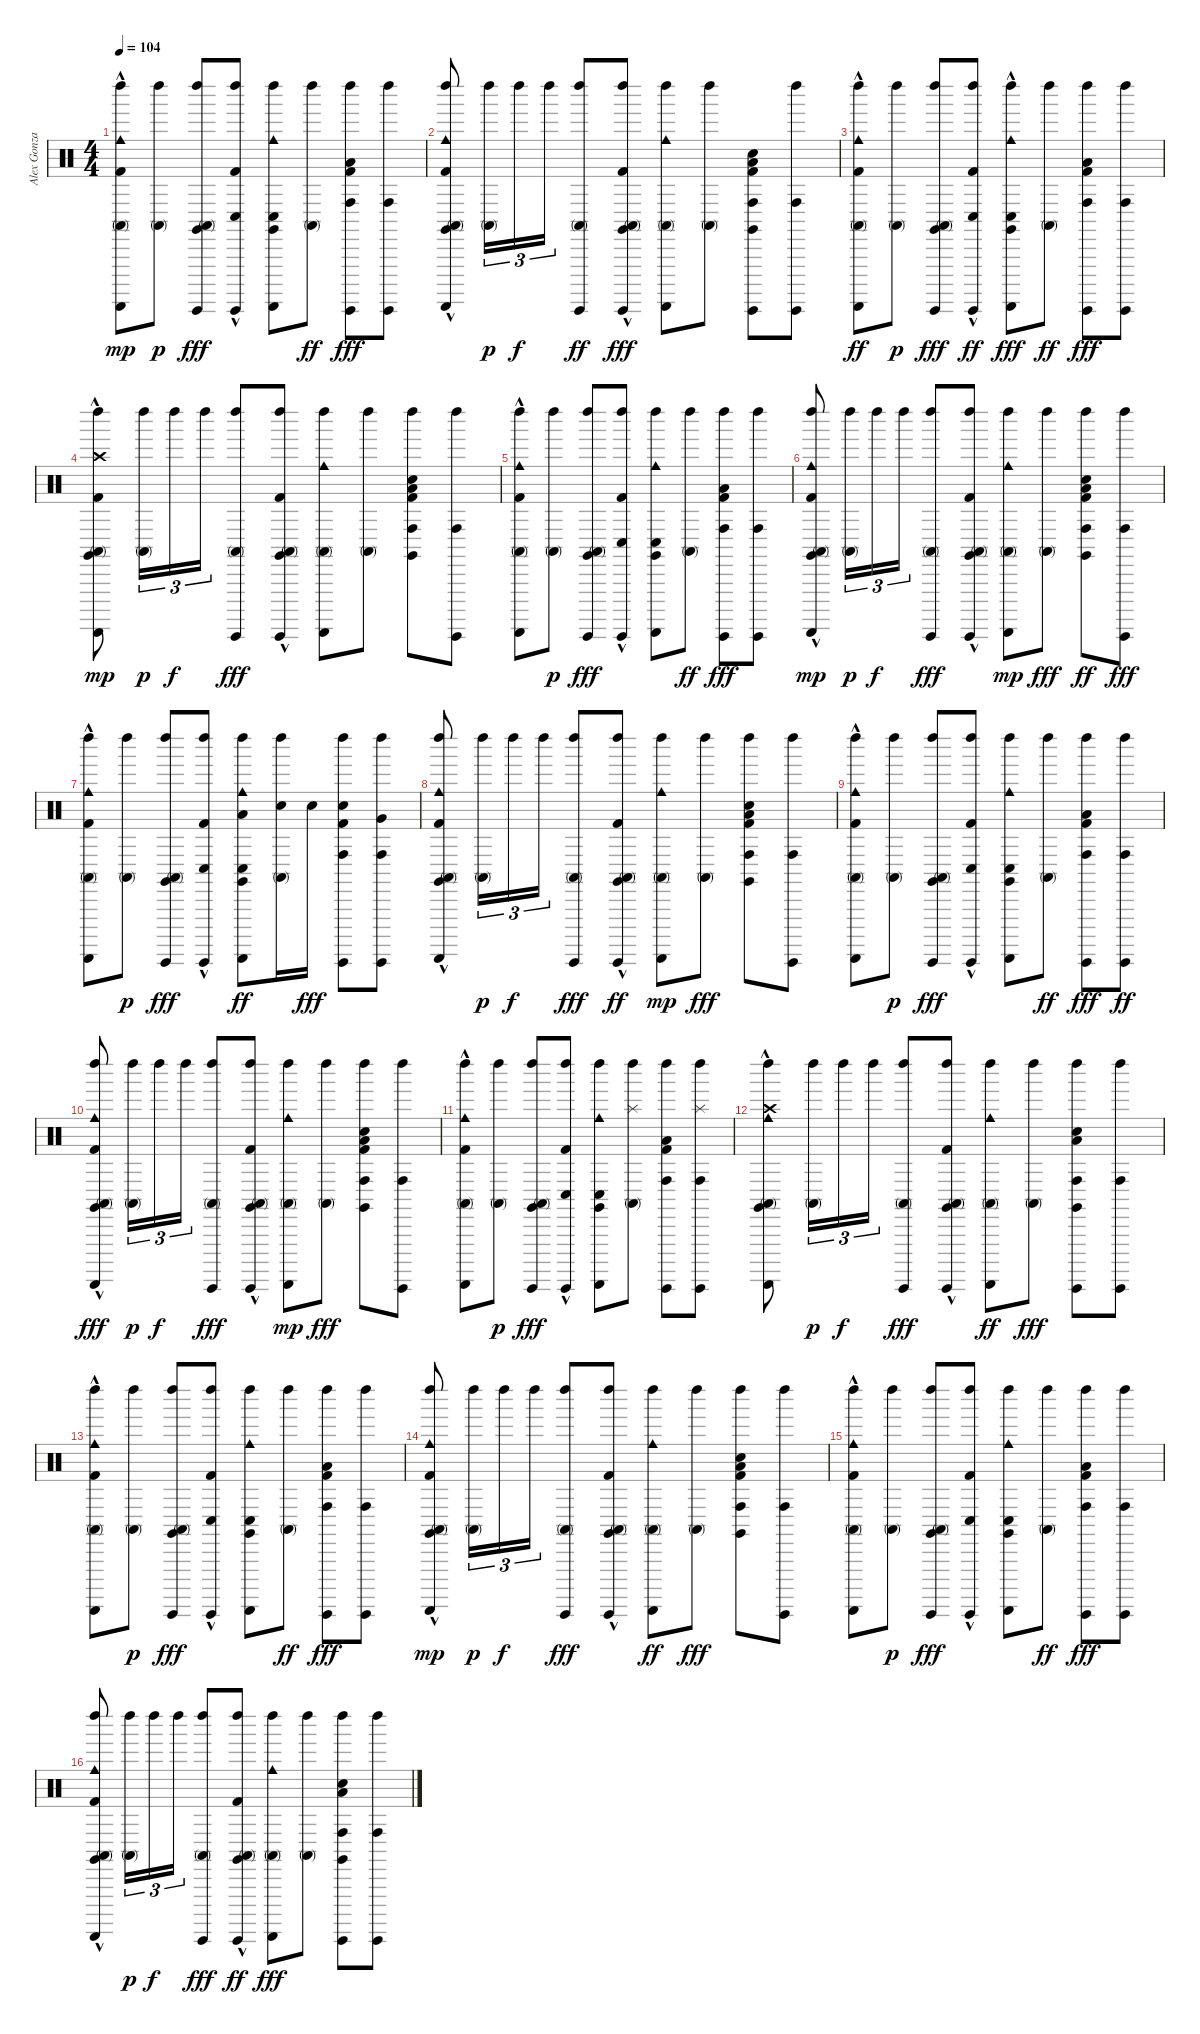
\track ("Alex Gonzalez" "Alex Gonza") {instrument percussion}
\staff {score}
\articulation defaults
\ts (4 4)
\tempo 104
\clef neutral
\ks c
("Left Maraca (hit)" "Kick (hit) 2"{hac} "Guiro (scrap-return)" "Cowbell medium (hit)" "Conga high (mute)").8{dy mp} ("Conga high (mute)" "Left Maraca (hit)").8{dy p} ("Claves (hit)" "Conga high (mute)" "Left Maraca (hit)" "Guiro (hit)").8{dy fff} ("Conga low (hit)" "Kick (hit) 2"{hac} "Left Maraca (hit)" "Guiro (hit)").8 ("Claves (hit)" "Conga low (hit)" "Left Maraca (hit)" "Cowbell medium (hit)" "Guiro (scrap-return)").8 ("Conga high (mute)" "Left Maraca (hit)").8{dy ff} ("Kick (hit) 2" "Left Maraca (hit)" "Low Tom (hit)" "Guiro (hit)" "Conga high (hit)").8{dy fff} ("Conga high (hit)" "Left Maraca (hit)" "Guiro (hit)").8 |
("Conga high (mute)" "Guiro (scrap-return)" "Cowbell medium (hit)" "Left Maraca (hit)" "Kick (hit) 2"{hac} "Claves (hit)"{hac}).8 ("Conga high (mute)" "Left Maraca (hit)").16{tu (3 2) dy p} "Left Maraca (hit)".16{tu (3 2) dy f} "Left Maraca (hit)".16{tu (3 2)} ("Guiro (hit)" "Conga high (mute)" "Left Maraca (hit)").8{dy ff} ("Guiro (hit)" "Claves (hit)"{hac} "Left Maraca (hit)" "Conga high (mute)" "Kick (hit) 2"{hac}).8{dy fff} ("Conga high (mute)" "Left Maraca (hit)" "Cowbell medium (hit)" "Guiro (scrap-return)").8 ("Conga high (mute)" "Left Maraca (hit)").8 ("Conga high (hit)" "Electric Snare (hit)" "Guiro (hit)" "Kick (hit) 2" "Low Tom (hit)" "Claves (hit)").8 ("Conga high (hit)" "Left Maraca (hit)" "Guiro (hit)").8 |
("Guiro (scrap-return)" "Kick (hit) 2"{hac} "Conga high (mute)" "Cowbell medium (hit)" "Left Maraca (hit)").8{dy ff} ("Conga high (mute)" "Left Maraca (hit)").8{dy p} ("Claves (hit)" "Conga high (mute)" "Left Maraca (hit)" "Guiro (hit)").8{dy fff} ("Left Maraca (hit)" "Guiro (hit)" "Conga low (hit)" "Kick (hit) 2"{hac}).8{dy ff} ("Claves (hit)" "Conga low (hit)" "Guiro (scrap-return)" "Left Maraca (hit)" "Cowbell medium (hit)"{hac}).8{dy fff} ("Conga high (mute)" "Left Maraca (hit)").8{dy ff} ("Conga high (hit)" "Kick (hit) 2" "Left Maraca (hit)" "Low Tom (hit)" "Guiro (hit)").8{dy fff} ("Conga high (hit)" "Left Maraca (hit)" "Guiro (hit)").8 |
("Left Maraca (hit)" "Kick (hit) 2"{hac} "Crash high (hit)" "Guiro (scrap-return)" "Conga high (mute)" "Claves (hit)"{hac}).8{dy mp} ("Conga high (mute)" "Left Maraca (hit)").16{tu (3 2) dy p} "Left Maraca (hit)".16{tu (3 2) dy f} "Left Maraca (hit)".16{tu (3 2)} ("Left Maraca (hit)" "Guiro (hit)" "Conga high (mute)").8{dy fff} ("Left Maraca (hit)" "Conga high (mute)" "Kick (hit) 2"{hac} "Guiro (hit)" "Claves (hit)"{hac}).8 ("Left Maraca (hit)" "Conga high (mute)" "Guiro (scrap-return)" "Cowbell medium (hit)").8 ("Conga high (mute)" "Left Maraca (hit)").8 ("Claves (hit)" "Conga high (hit)" "Kick (hit) 2" "Left Maraca (hit)" "Low Tom (hit)" "Electric Snare (hit)").8 ("Conga high (hit)" "Left Maraca (hit)" "Guiro (hit)").8 |
("Conga high (mute)" "Kick (hit) 2"{hac} "Left Maraca (hit)" "Cowbell medium (hit)" "Guiro (scrap-return)").8 ("Conga high (mute)" "Left Maraca (hit)").8{dy p} ("Conga high (mute)" "Claves (hit)" "Guiro (hit)" "Left Maraca (hit)").8{dy fff} ("Left Maraca (hit)" "Conga low (hit)" "Kick (hit) 2"{hac} "Guiro (hit)").8 ("Conga low (hit)" "Left Maraca (hit)" "Claves (hit)" "Cowbell medium (hit)" "Guiro (scrap-return)").8 ("Conga high (mute)" "Left Maraca (hit)").8{dy ff} ("Kick (hit) 2" "Conga high (hit)" "Left Maraca (hit)" "Guiro (hit)" "Low Tom (hit)").8{dy fff} ("Conga high (hit)" "Left Maraca (hit)" "Guiro (hit)").8 |
("Left Maraca (hit)" "Kick (hit) 2"{hac} "Cowbell medium (hit)" "Guiro (scrap-return)" "Claves (hit)"{hac} "Conga high (mute)").8{dy mp} ("Conga high (mute)" "Left Maraca (hit)").16{tu (3 2) dy p} "Left Maraca (hit)".16{tu (3 2) dy f} "Left Maraca (hit)".16{tu (3 2)} ("Conga high (mute)" "Left Maraca (hit)" "Guiro (hit)").8{dy fff} ("Claves (hit)"{hac} "Conga high (mute)" "Left Maraca (hit)" "Guiro (hit)" "Kick (hit) 2"{hac}).8 ("Guiro (scrap-return)" "Cowbell medium (hit)" "Left Maraca (hit)" "Conga high (mute)").8{dy mp} ("Conga high (mute)" "Left Maraca (hit)").8{dy fff} ("Low Tom (hit)" "Conga high (hit)" "Kick (hit) 2" "Electric Snare (hit)" "Claves (hit)" "Left Maraca (hit)").8{dy ff} ("Conga high (hit)" "Left Maraca (hit)" "Guiro (hit)").8{dy fff} |
("Kick (hit) 2"{hac} "Conga high (mute)" "Left Maraca (hit)" "Guiro (scrap-return)" "Cowbell medium (hit)").8 ("Conga high (mute)" "Left Maraca (hit)").8{dy p} ("Guiro (hit)" "Left Maraca (hit)" "Conga high (mute)" "Claves (hit)").8{dy fff} ("Conga low (hit)" "Kick (hit) 2"{hac} "Left Maraca (hit)" "Guiro (hit)").8 ("Cowbell medium (hit)" "Conga low (hit)" "Low Tom (hit)" "Claves (hit)" "Guiro (scrap-return)" "Left Maraca (hit)").8{dy ff} ("Electric Snare (hit)" "Conga high (mute)" "Left Maraca (hit)").16 "Electric Snare (hit)".16{dy fff} ("Electric Snare (hit)" "Conga high (hit)" "Kick (hit) 2" "Left Maraca (hit)" "Guiro (hit)").8 ("Conga high (hit)" "Left Maraca (hit)" "Guiro (hit)" "Very Low Tom (hit)").8 |
("Claves (hit)"{hac} "Kick (hit) 2"{hac} "Conga high (mute)" "Left Maraca (hit)" "Cowbell medium (hit)" "Guiro (scrap-return)").8 ("Conga high (mute)" "Left Maraca (hit)").16{tu (3 2) dy p} "Left Maraca (hit)".16{tu (3 2) dy f} "Left Maraca (hit)".16{tu (3 2)} ("Left Maraca (hit)" "Guiro (hit)" "Conga high (mute)").8{dy fff} ("Kick (hit) 2"{hac} "Conga high (mute)" "Guiro (hit)" "Left Maraca (hit)" "Claves (hit)"{hac}).8{dy ff} ("Guiro (scrap-return)" "Cowbell medium (hit)" "Left Maraca (hit)" "Conga high (mute)").8{dy mp} ("Conga high (mute)" "Left Maraca (hit)").8{dy fff} ("Claves (hit)" "Left Maraca (hit)" "Conga high (hit)" "Kick (hit) 2" "Low Tom (hit)" "Electric Snare (hit)").8 ("Conga high (hit)" "Left Maraca (hit)" "Guiro (hit)").8 |
("Cowbell medium (hit)" "Kick (hit) 2"{hac} "Conga high (mute)" "Left Maraca (hit)" "Guiro (scrap-return)").8 ("Conga high (mute)" "Left Maraca (hit)").8{dy p} ("Left Maraca (hit)" "Claves (hit)" "Conga high (mute)" "Guiro (hit)").8{dy fff} ("Conga low (hit)" "Kick (hit) 2"{hac} "Left Maraca (hit)" "Guiro (hit)").8 ("Left Maraca (hit)" "Claves (hit)" "Conga low (hit)" "Cowbell medium (hit)" "Guiro (scrap-return)").8 ("Conga high (mute)" "Left Maraca (hit)").8{dy ff} ("Conga high (hit)" "Low Tom (hit)" "Kick (hit) 2" "Left Maraca (hit)" "Guiro (hit)").8{dy fff} ("Guiro (hit)" "Conga high (hit)" "Left Maraca (hit)").8{dy ff} |
("Guiro (scrap-return)" "Conga high (mute)" "Left Maraca (hit)" "Cowbell medium (hit)" "Kick (hit) 2"{hac} "Claves (hit)"{hac}).8{dy fff} ("Conga high (mute)" "Left Maraca (hit)").16{tu (3 2) dy p} "Left Maraca (hit)".16{tu (3 2) dy f} "Left Maraca (hit)".16{tu (3 2)} ("Left Maraca (hit)" "Guiro (hit)" "Conga high (mute)").8{dy fff} ("Left Maraca (hit)" "Guiro (hit)" "Claves (hit)"{hac} "Conga high (mute)" "Kick (hit) 2"{hac}).8 ("Left Maraca (hit)" "Guiro (scrap-return)" "Cowbell medium (hit)" "Conga high (mute)").8{dy mp} ("Conga high (mute)" "Left Maraca (hit)").8{dy fff} ("Kick (hit) 2" "Claves (hit)" "Left Maraca (hit)" "Low Tom (hit)" "Conga high (hit)" "Electric Snare (hit)").8 ("Left Maraca (hit)" "Guiro (hit)" "Conga high (hit)").8 |
("Conga high (mute)" "Kick (hit) 2"{hac} "Left Maraca (hit)" "Cowbell medium (hit)" "Guiro (scrap-return)").8 ("Conga high (mute)" "Left Maraca (hit)").8{dy p} ("Guiro (hit)" "Conga high (mute)" "Claves (hit)" "Left Maraca (hit)").8{dy fff} ("Kick (hit) 2"{hac} "Conga low (hit)" "Guiro (hit)" "Left Maraca (hit)").8 ("Claves (hit)" "Conga low (hit)" "Left Maraca (hit)" "Cowbell medium (hit)" "Guiro (scrap-return)").8 ("Conga high (mute)" "Left Maraca (hit)" "Splash (hit)").8 ("Conga high (hit)" "Guiro (hit)" "Kick (hit) 2" "Low Tom (hit)" "Left Maraca (hit)").8 ("Guiro (hit)" "Left Maraca (hit)" "Conga high (hit)" "Splash (hit)").8 |
("Claves (hit)"{hac} "Conga high (mute)" "Left Maraca (hit)" "Cowbell medium (hit)" "Crash high (hit)"{hac} "Guiro (scrap-return)").8 ("Conga high (mute)" "Left Maraca (hit)").16{tu (3 2) dy p} "Left Maraca (hit)".16{tu (3 2) dy f} "Left Maraca (hit)".16{tu (3 2)} ("Conga high (mute)" "Left Maraca (hit)" "Guiro (hit)").8{dy fff} ("Claves (hit)"{hac} "Kick (hit) 2" "Left Maraca (hit)" "Conga high (mute)" "Guiro (hit)").8 ("Guiro (scrap-return)" "Conga high (mute)" "Cowbell medium (hit)" "Left Maraca (hit)").8{dy ff} ("Conga high (mute)" "Left Maraca (hit)").8{dy fff} ("Low Tom (hit)" "Conga high (hit)" "Guiro (hit)" "Left Maraca (hit)" "Claves (hit)" "Electric Snare (hit)").8 ("Left Maraca (hit)" "Guiro (hit)" "Conga high (hit)").8 |
("Conga high (mute)" "Kick (hit) 2"{hac} "Left Maraca (hit)" "Cowbell medium (hit)" "Guiro (scrap-return)").8 ("Conga high (mute)" "Left Maraca (hit)").8{dy p} ("Left Maraca (hit)" "Guiro (hit)" "Claves (hit)" "Conga high (mute)").8{dy fff} ("Kick (hit) 2"{hac} "Left Maraca (hit)" "Conga low (hit)" "Guiro (hit)").8 ("Claves (hit)" "Left Maraca (hit)" "Conga low (hit)" "Guiro (scrap-return)" "Cowbell medium (hit)").8 ("Conga high (mute)" "Left Maraca (hit)").8{dy ff} ("Kick (hit) 2" "Low Tom (hit)" "Left Maraca (hit)" "Conga high (hit)" "Guiro (hit)").8{dy fff} ("Conga high (hit)" "Left Maraca (hit)" "Guiro (hit)").8 |
("Cowbell medium (hit)" "Left Maraca (hit)" "Kick (hit) 2"{hac} "Guiro (scrap-return)" "Claves (hit)"{hac} "Conga high (mute)").8{dy mp} ("Conga high (mute)" "Left Maraca (hit)").16{tu (3 2) dy p} "Left Maraca (hit)".16{tu (3 2) dy f} "Left Maraca (hit)".16{tu (3 2)} ("Conga high (mute)" "Left Maraca (hit)" "Guiro (hit)").8{dy fff} ("Claves (hit)"{hac} "Conga high (mute)" "Kick (hit) 2"{hac} "Left Maraca (hit)" "Guiro (hit)").8 ("Guiro (scrap-return)" "Conga high (mute)" "Cowbell medium (hit)" "Left Maraca (hit)").8{dy ff} ("Conga high (mute)" "Left Maraca (hit)").8{dy fff} ("Claves (hit)" "Conga high (hit)" "Low Tom (hit)" "Left Maraca (hit)" "Electric Snare (hit)" "Kick (hit) 2").8 ("Conga high (hit)" "Left Maraca (hit)" "Guiro (hit)").8 |
("Kick (hit) 2"{hac} "Cowbell medium (hit)" "Left Maraca (hit)" "Conga high (mute)" "Guiro (scrap-return)").8 ("Conga high (mute)" "Left Maraca (hit)").8{dy p} ("Conga high (mute)" "Claves (hit)" "Guiro (hit)" "Left Maraca (hit)").8{dy fff} ("Conga low (hit)" "Kick (hit) 2"{hac} "Left Maraca (hit)" "Guiro (hit)").8 ("Cowbell medium (hit)" "Claves (hit)" "Left Maraca (hit)" "Conga low (hit)" "Guiro (scrap-return)").8 ("Conga high (mute)" "Left Maraca (hit)").8{dy ff} ("Kick (hit) 2" "Low Tom (hit)" "Conga high (hit)" "Guiro (hit)" "Left Maraca (hit)").8{dy fff} ("Conga high (hit)" "Left Maraca (hit)" "Guiro (hit)").8 |
("Kick (hit) 2"{hac} "Conga high (mute)" "Left Maraca (hit)" "Cowbell medium (hit)" "Claves (hit)"{hac} "Guiro (scrap-return)").8 ("Conga high (mute)" "Left Maraca (hit)").16{tu (3 2) dy p} "Left Maraca (hit)".16{tu (3 2) dy f} "Left Maraca (hit)".16{tu (3 2)} ("Conga high (mute)" "Left Maraca (hit)" "Guiro (hit)").8{dy fff} ("Kick (hit) 2" "Conga high (mute)" "Claves (hit)"{hac} "Guiro (hit)" "Left Maraca (hit)").8{dy ff} ("Conga high (mute)" "Left Maraca (hit)" "Cowbell medium (hit)" "Guiro (scrap-return)").8{dy fff} ("Conga high (mute)" "Left Maraca (hit)").8 ("Electric Snare (hit)" "Conga high (hit)" "Claves (hit)" "Left Maraca (hit)" "Guiro (hit)" "Low Tom (hit)").8 ("Conga high (hit)" "Left Maraca (hit)" "Guiro (hit)").8
